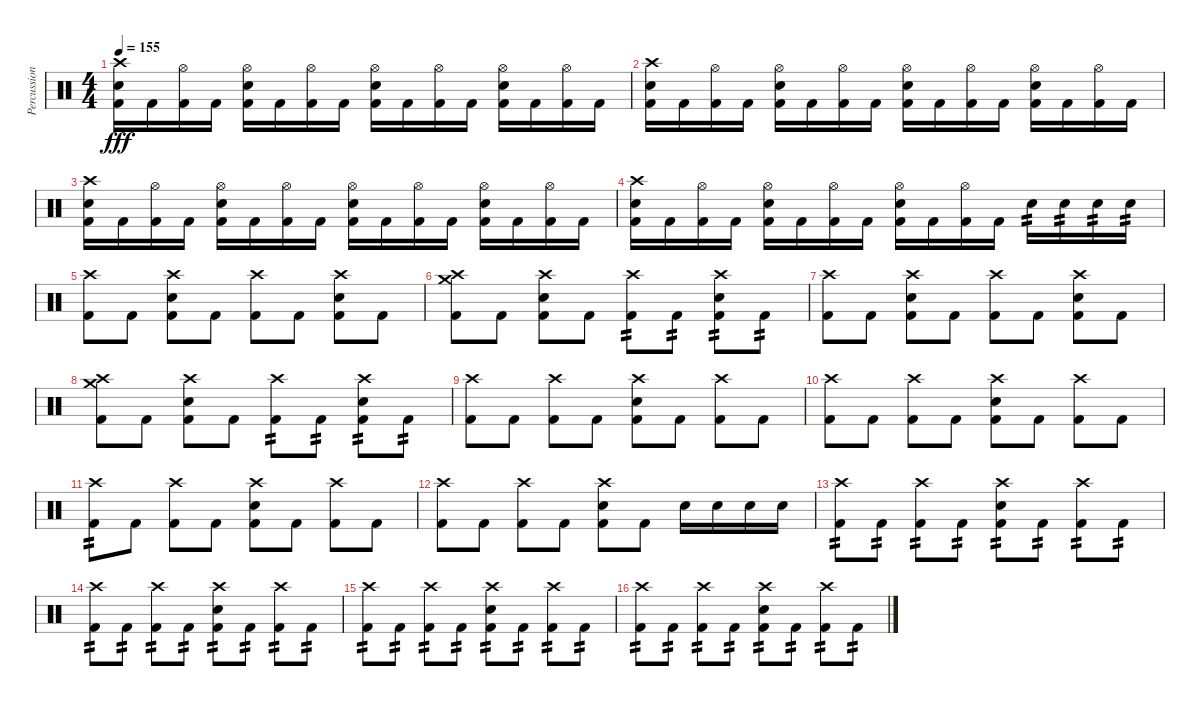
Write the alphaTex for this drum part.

\track ("Percussion" "Percussion") {instrument percussion}
\staff {score}
\articulation defaults
\ts (4 4)
\tempo 155
\clef neutral
\ks c
("Kick (hit) 2" "Electric Snare (hit)" "Crash high (hit)").16{dy fff} "Kick (hit) 2".16 ("Kick (hit) 2" "Hi-Hat (open)").16 "Kick (hit) 2".16 ("Kick (hit) 2" "Electric Snare (hit)" "Hi-Hat (open)").16 "Kick (hit) 2".16 ("Kick (hit) 2" "Hi-Hat (open)").16 "Kick (hit) 2".16 ("Kick (hit) 2" "Electric Snare (hit)" "Hi-Hat (open)").16 "Kick (hit) 2".16 ("Kick (hit) 2" "Hi-Hat (open)").16 "Kick (hit) 2".16 ("Kick (hit) 2" "Electric Snare (hit)" "Hi-Hat (open)").16 "Kick (hit) 2".16 ("Kick (hit) 2" "Hi-Hat (open)").16 "Kick (hit) 2".16 |
("Kick (hit) 2" "Electric Snare (hit)" "Crash high (hit)").16 "Kick (hit) 2".16 ("Kick (hit) 2" "Hi-Hat (open)").16 "Kick (hit) 2".16 ("Kick (hit) 2" "Electric Snare (hit)" "Hi-Hat (open)").16 "Kick (hit) 2".16 ("Kick (hit) 2" "Hi-Hat (open)").16 "Kick (hit) 2".16 ("Kick (hit) 2" "Electric Snare (hit)" "Hi-Hat (open)").16 "Kick (hit) 2".16 ("Kick (hit) 2" "Hi-Hat (open)").16 "Kick (hit) 2".16 ("Kick (hit) 2" "Electric Snare (hit)" "Hi-Hat (open)").16 "Kick (hit) 2".16 ("Kick (hit) 2" "Hi-Hat (open)").16 "Kick (hit) 2".16 |
("Kick (hit) 2" "Electric Snare (hit)" "Crash high (hit)").16 "Kick (hit) 2".16 ("Kick (hit) 2" "Hi-Hat (open)").16 "Kick (hit) 2".16 ("Kick (hit) 2" "Electric Snare (hit)" "Hi-Hat (open)").16 "Kick (hit) 2".16 ("Kick (hit) 2" "Hi-Hat (open)").16 "Kick (hit) 2".16 ("Kick (hit) 2" "Electric Snare (hit)" "Hi-Hat (open)").16 "Kick (hit) 2".16 ("Kick (hit) 2" "Hi-Hat (open)").16 "Kick (hit) 2".16 ("Kick (hit) 2" "Electric Snare (hit)" "Hi-Hat (open)").16 "Kick (hit) 2".16 ("Kick (hit) 2" "Hi-Hat (open)").16 "Kick (hit) 2".16 |
("Kick (hit) 2" "Electric Snare (hit)" "Crash high (hit)").16 "Kick (hit) 2".16 ("Kick (hit) 2" "Hi-Hat (open)").16 "Kick (hit) 2".16 ("Kick (hit) 2" "Electric Snare (hit)" "Hi-Hat (open)").16 "Kick (hit) 2".16 ("Kick (hit) 2" "Hi-Hat (open)").16 "Kick (hit) 2".16 ("Kick (hit) 2" "Electric Snare (hit)" "Hi-Hat (open)").16 "Kick (hit) 2".16 ("Kick (hit) 2" "Hi-Hat (open)").16 "Kick (hit) 2".16 "Electric Snare (hit)".16{tp 2} "Electric Snare (hit)".16{tp 2} "Electric Snare (hit)".16{tp 2} "Electric Snare (hit)".16{tp 2} |
("Crash high (hit)" "Kick (hit) 2").8 "Kick (hit) 2".8 ("Crash high (hit)" "Electric Snare (hit)" "Kick (hit) 2").8 "Kick (hit) 2".8 ("Crash high (hit)" "Kick (hit) 2").8 "Kick (hit) 2".8 ("Crash high (hit)" "Electric Snare (hit)" "Kick (hit) 2").8 "Kick (hit) 2".8 |
("Crash medium (hit)" "Kick (hit) 2" "Crash high (hit)").8 "Kick (hit) 2".8 ("Kick (hit) 2" "Electric Snare (hit)" "Crash high (hit)").8 "Kick (hit) 2".8 ("Kick (hit) 2" "Crash high (hit)").8{tp 2} "Kick (hit) 2".8{tp 2} ("Kick (hit) 2" "Electric Snare (hit)" "Crash high (hit)").8{tp 2} "Kick (hit) 2".8{tp 2} |
("Crash high (hit)" "Kick (hit) 2").8 "Kick (hit) 2".8 ("Crash high (hit)" "Electric Snare (hit)" "Kick (hit) 2").8 "Kick (hit) 2".8 ("Crash high (hit)" "Kick (hit) 2").8 "Kick (hit) 2".8 ("Crash high (hit)" "Electric Snare (hit)" "Kick (hit) 2").8 "Kick (hit) 2".8 |
("Crash medium (hit)" "Kick (hit) 2" "Crash high (hit)").8 "Kick (hit) 2".8 ("Kick (hit) 2" "Electric Snare (hit)" "Crash high (hit)").8 "Kick (hit) 2".8 ("Kick (hit) 2" "Crash high (hit)").8{tp 2} "Kick (hit) 2".8{tp 2} ("Kick (hit) 2" "Electric Snare (hit)" "Crash high (hit)").8{tp 2} "Kick (hit) 2".8{tp 2} |
("Kick (hit) 2" "Crash high (hit)").8 "Kick (hit) 2".8 ("Kick (hit) 2" "Crash high (hit)").8 "Kick (hit) 2".8 ("Kick (hit) 2" "Electric Snare (hit)" "Crash high (hit)").8 "Kick (hit) 2".8 ("Kick (hit) 2" "Crash high (hit)").8 "Kick (hit) 2".8 |
("Kick (hit) 2" "Crash high (hit)").8 "Kick (hit) 2".8 ("Kick (hit) 2" "Crash high (hit)").8 "Kick (hit) 2".8 ("Kick (hit) 2" "Electric Snare (hit)" "Crash high (hit)").8 "Kick (hit) 2".8 ("Kick (hit) 2" "Crash high (hit)").8 "Kick (hit) 2".8 |
("Kick (hit) 2" "Crash high (hit)").8{tp 2} "Kick (hit) 2".8 ("Kick (hit) 2" "Crash high (hit)").8 "Kick (hit) 2".8 ("Kick (hit) 2" "Electric Snare (hit)" "Crash high (hit)").8 "Kick (hit) 2".8 ("Kick (hit) 2" "Crash high (hit)").8 "Kick (hit) 2".8 |
("Kick (hit) 2" "Crash high (hit)").8 "Kick (hit) 2".8 ("Kick (hit) 2" "Crash high (hit)").8 "Kick (hit) 2".8 ("Kick (hit) 2" "Crash high (hit)" "Electric Snare (hit)").8 "Kick (hit) 2".8 "Electric Snare (hit)".16 "Electric Snare (hit)".16 "Electric Snare (hit)".16 "Electric Snare (hit)".16 |
("Kick (hit) 2" "Crash high (hit)").8{tp 2} "Kick (hit) 2".8{tp 2} ("Kick (hit) 2" "Crash high (hit)").8{tp 2} "Kick (hit) 2".8{tp 2} ("Kick (hit) 2" "Electric Snare (hit)" "Crash high (hit)").8{tp 2} "Kick (hit) 2".8{tp 2} ("Kick (hit) 2" "Crash high (hit)").8{tp 2} "Kick (hit) 2".8{tp 2} |
("Kick (hit) 2" "Crash high (hit)").8{tp 2} "Kick (hit) 2".8{tp 2} ("Kick (hit) 2" "Crash high (hit)").8{tp 2} "Kick (hit) 2".8{tp 2} ("Kick (hit) 2" "Electric Snare (hit)" "Crash high (hit)").8{tp 2} "Kick (hit) 2".8{tp 2} ("Kick (hit) 2" "Crash high (hit)").8{tp 2} "Kick (hit) 2".8{tp 2} |
("Kick (hit) 2" "Crash high (hit)").8{tp 2} "Kick (hit) 2".8{tp 2} ("Kick (hit) 2" "Crash high (hit)").8{tp 2} "Kick (hit) 2".8{tp 2} ("Kick (hit) 2" "Electric Snare (hit)" "Crash high (hit)").8{tp 2} "Kick (hit) 2".8{tp 2} ("Kick (hit) 2" "Crash high (hit)").8{tp 2} "Kick (hit) 2".8{tp 2} |
("Kick (hit) 2" "Crash high (hit)").8{tp 2} "Kick (hit) 2".8{tp 2} ("Kick (hit) 2" "Crash high (hit)").8{tp 2} "Kick (hit) 2".8{tp 2} ("Kick (hit) 2" "Electric Snare (hit)" "Crash high (hit)").8{tp 2} "Kick (hit) 2".8{tp 2} ("Kick (hit) 2" "Crash high (hit)").8{tp 2} "Kick (hit) 2".8{tp 2}
